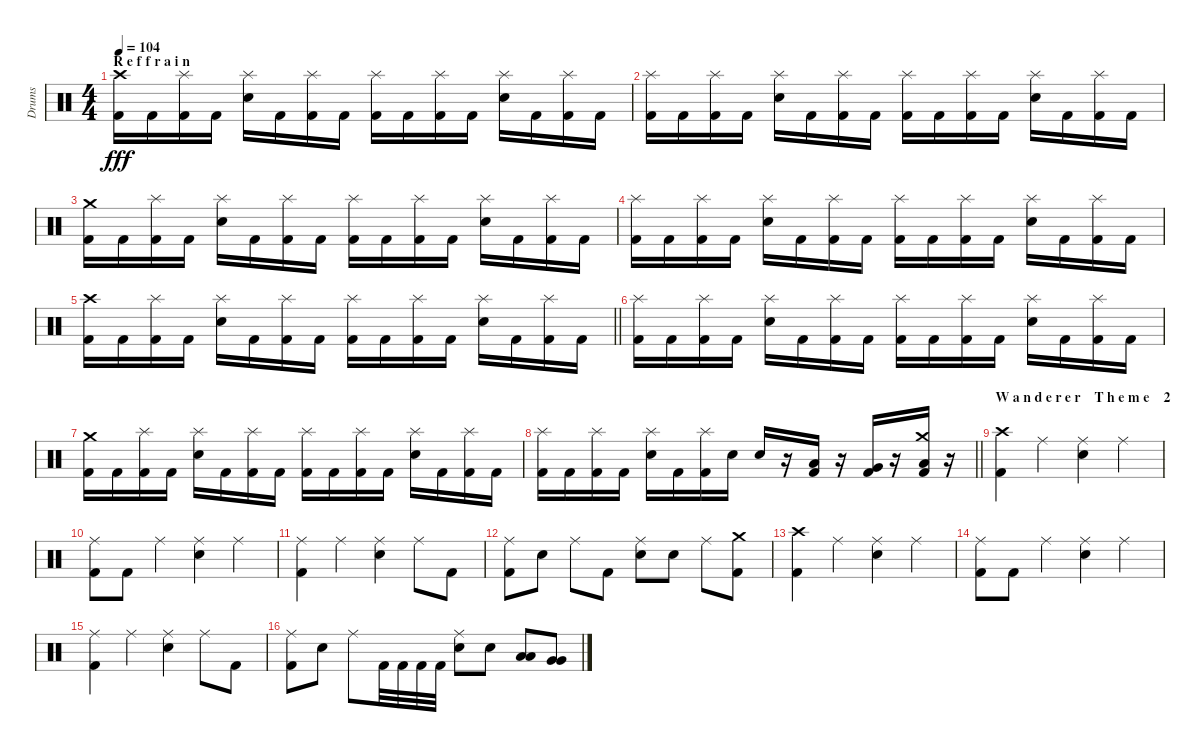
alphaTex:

\track ("Drums" "Drums") {instrument percussion}
\staff {score}
\articulation defaults
\ts (4 4)
\section ("" "R e f f r a i n")
\tempo 104
\clef neutral
\ks c
("Crash high (hit)" "Kick (hit) 2").16{dy fff} "Kick (hit) 2".16 ("Splash (hit)" "Kick (hit) 2").16 "Kick (hit) 2".16 ("Splash (hit)" "Snare (hit) 2").16 "Kick (hit) 2".16 ("Splash (hit)" "Kick (hit) 2").16 "Kick (hit) 2".16 ("Splash (hit)" "Kick (hit) 2").16 "Kick (hit) 2".16 ("Splash (hit)" "Kick (hit) 2").16 "Kick (hit) 2".16 ("Splash (hit)" "Snare (hit) 2").16 "Kick (hit) 2".16 ("Splash (hit)" "Kick (hit) 2").16 "Kick (hit) 2".16 |
("Splash (hit)" "Kick (hit) 2").16 "Kick (hit) 2".16 ("Splash (hit)" "Kick (hit) 2").16 "Kick (hit) 2".16 ("Splash (hit)" "Snare (hit) 2").16 "Kick (hit) 2".16 ("Splash (hit)" "Kick (hit) 2").16 "Kick (hit) 2".16 ("Splash (hit)" "Kick (hit) 2").16 "Kick (hit) 2".16 ("Splash (hit)" "Kick (hit) 2").16 "Kick (hit) 2".16 ("Splash (hit)" "Snare (hit) 2").16 "Kick (hit) 2".16 ("Splash (hit)" "Kick (hit) 2").16 "Kick (hit) 2".16 |
("Crash medium (hit)" "Kick (hit) 2").16 "Kick (hit) 2".16 ("Splash (hit)" "Kick (hit) 2").16 "Kick (hit) 2".16 ("Splash (hit)" "Snare (hit) 2").16 "Kick (hit) 2".16 ("Splash (hit)" "Kick (hit) 2").16 "Kick (hit) 2".16 ("Splash (hit)" "Kick (hit) 2").16 "Kick (hit) 2".16 ("Splash (hit)" "Kick (hit) 2").16 "Kick (hit) 2".16 ("Splash (hit)" "Snare (hit) 2").16 "Kick (hit) 2".16 ("Splash (hit)" "Kick (hit) 2").16 "Kick (hit) 2".16 |
("Splash (hit)" "Kick (hit) 2").16 "Kick (hit) 2".16 ("Splash (hit)" "Kick (hit) 2").16 "Kick (hit) 2".16 ("Splash (hit)" "Snare (hit) 2").16 "Kick (hit) 2".16 ("Splash (hit)" "Kick (hit) 2").16 "Kick (hit) 2".16 ("Splash (hit)" "Kick (hit) 2").16 "Kick (hit) 2".16 ("Splash (hit)" "Kick (hit) 2").16 "Kick (hit) 2".16 ("Splash (hit)" "Snare (hit) 2").16 "Kick (hit) 2".16 ("Splash (hit)" "Kick (hit) 2").16 "Kick (hit) 2".16 |
\barLineRight lightlight
("Crash high (hit)" "Kick (hit) 2").16 "Kick (hit) 2".16 ("Splash (hit)" "Kick (hit) 2").16 "Kick (hit) 2".16 ("Splash (hit)" "Snare (hit) 2").16 "Kick (hit) 2".16 ("Splash (hit)" "Kick (hit) 2").16 "Kick (hit) 2".16 ("Splash (hit)" "Kick (hit) 2").16 "Kick (hit) 2".16 ("Splash (hit)" "Kick (hit) 2").16 "Kick (hit) 2".16 ("Splash (hit)" "Snare (hit) 2").16 "Kick (hit) 2".16 ("Splash (hit)" "Kick (hit) 2").16 "Kick (hit) 2".16 |
("Splash (hit)" "Kick (hit) 2").16 "Kick (hit) 2".16 ("Splash (hit)" "Kick (hit) 2").16 "Kick (hit) 2".16 ("Splash (hit)" "Snare (hit) 2").16 "Kick (hit) 2".16 ("Splash (hit)" "Kick (hit) 2").16 "Kick (hit) 2".16 ("Splash (hit)" "Kick (hit) 2").16 "Kick (hit) 2".16 ("Splash (hit)" "Kick (hit) 2").16 "Kick (hit) 2".16 ("Splash (hit)" "Snare (hit) 2").16 "Kick (hit) 2".16 ("Splash (hit)" "Kick (hit) 2").16 "Kick (hit) 2".16 |
("Crash medium (hit)" "Kick (hit) 2").16 "Kick (hit) 2".16 ("Splash (hit)" "Kick (hit) 2").16 "Kick (hit) 2".16 ("Splash (hit)" "Snare (hit) 2").16 "Kick (hit) 2".16 ("Splash (hit)" "Kick (hit) 2").16 "Kick (hit) 2".16 ("Splash (hit)" "Kick (hit) 2").16 "Kick (hit) 2".16 ("Splash (hit)" "Kick (hit) 2").16 "Kick (hit) 2".16 ("Splash (hit)" "Snare (hit) 2").16 "Kick (hit) 2".16 ("Splash (hit)" "Kick (hit) 2").16 "Kick (hit) 2".16 |
\barLineRight lightlight
("Splash (hit)" "Kick (hit) 2").16 "Kick (hit) 2".16 ("Splash (hit)" "Kick (hit) 2").16 "Kick (hit) 2".16 ("Splash (hit)" "Snare (hit) 2").16 "Kick (hit) 2".16 ("Splash (hit)" "Kick (hit) 2").16 "Snare (hit) 2".16 "Snare (hit) 2".16 r.16 ("Low Tom (hit)" "Kick (hit) 2").16 r.16 ("Very Low Tom (hit)" "Kick (hit) 2").16 r.16 ("Crash medium (hit)" "Low Floor Tom (hit)" "Kick (hit) 2").16 r.16 |
\section ("" "W a n d e r e r    T h e m e    2")
("Crash high (hit)" "Kick (hit) 2").4 "Ride (middle)".4 ("Ride (middle)" "Snare (hit) 2").4 "Ride (middle)".4 |
("Ride (middle)" "Kick (hit) 2").8 "Kick (hit) 2".8 "Ride (middle)".4 ("Ride (middle)" "Snare (hit) 2").4 "Ride (middle)".4 |
("Ride (middle)" "Kick (hit) 2").4 "Ride (middle)".4 ("Ride (middle)" "Snare (hit) 2").4 "Ride (middle)".8 "Kick (hit) 2".8 |
("Ride (middle)" "Kick (hit) 2").8 "Snare (hit) 2".8 "Ride (middle)".8 "Kick (hit) 2".8 ("Ride (middle)" "Snare (hit) 2").8 "Snare (hit) 2".8 "Ride (middle)".8 ("Crash medium (hit)" "Kick (hit) 2").8 |
("Crash high (hit)" "Kick (hit) 2").4 "Ride (middle)".4 ("Ride (middle)" "Snare (hit) 2").4 "Ride (middle)".4 |
("Ride (middle)" "Kick (hit) 2").8 "Kick (hit) 2".8 "Ride (middle)".4 ("Ride (middle)" "Snare (hit) 2").4 "Ride (middle)".4 |
("Ride (middle)" "Kick (hit) 2").4 "Ride (middle)".4 ("Ride (middle)" "Snare (hit) 2").4 "Ride (middle)".8 "Kick (hit) 2".8 |
("Ride (middle)" "Kick (hit) 2").8 "Snare (hit) 2".8 "Ride (middle)".8 "Kick (hit) 2".32 "Kick (hit) 2".32 "Kick (hit) 2".32 "Kick (hit) 2".32 ("Ride (middle)" "Snare (hit) 2").8 "Snare (hit) 2".8 ("Low Tom (hit)" "Low Tom (hit)").8 ("Very Low Tom (hit)" "Very Low Tom (hit)").8
